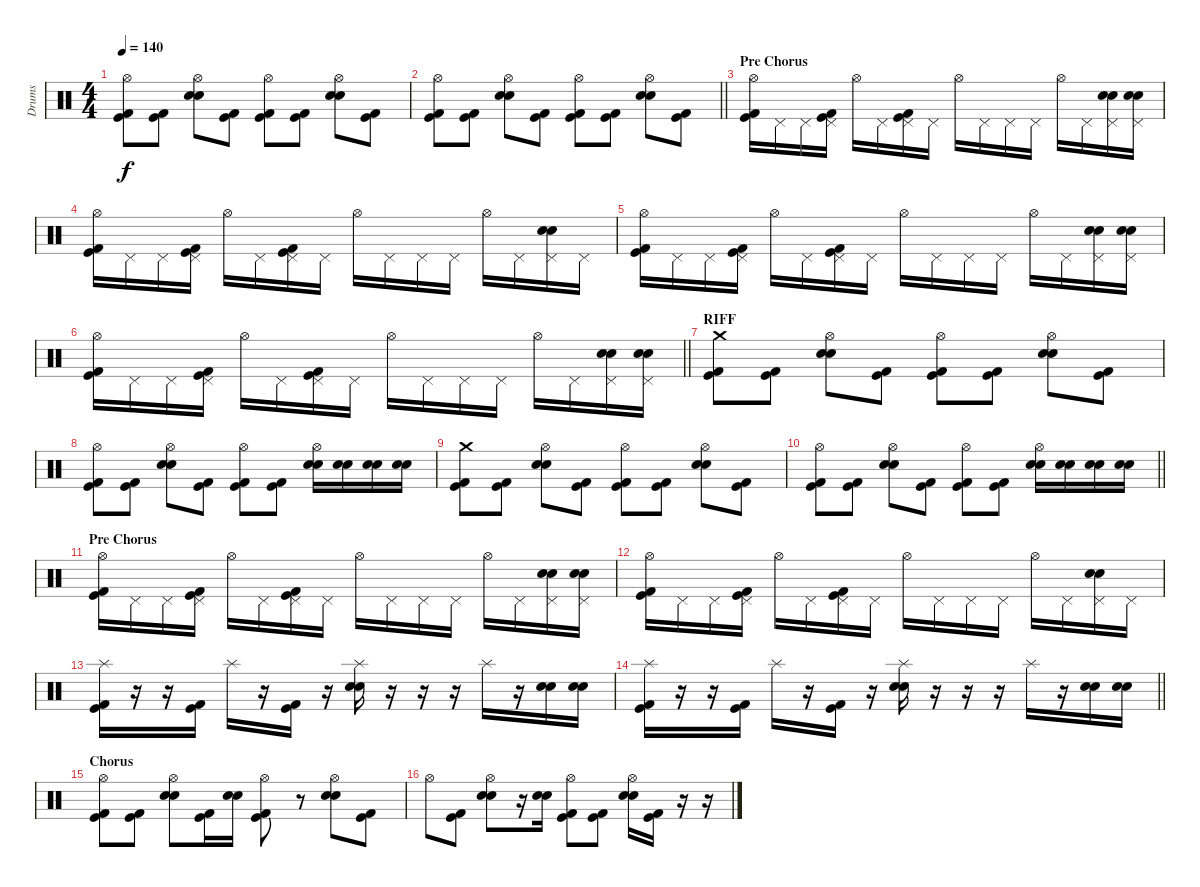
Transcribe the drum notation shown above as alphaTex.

\track ("Drums" "Drums") {instrument percussion}
\staff {score}
\articulation defaults
\ts (4 4)
\tempo 140
\clef neutral
\ks c
("Hi-Hat (open)" "Kick (hit) 2" "Kick (hit)").8{dy f} ("Kick (hit) 2" "Kick (hit)").8 ("Hi-Hat (open)" "Electric Snare (hit)" "Electric Snare (hit)").8 ("Kick (hit)" "Kick (hit) 2").8 ("Hi-Hat (open)" "Kick (hit) 2" "Kick (hit)").8 ("Kick (hit) 2" "Kick (hit)").8 ("Hi-Hat (open)" "Electric Snare (hit)" "Electric Snare (hit)").8 ("Kick (hit)" "Kick (hit) 2").8 |
\barLineRight lightlight
("Hi-Hat (open)" "Kick (hit) 2" "Kick (hit)").8 ("Kick (hit) 2" "Kick (hit)").8 ("Hi-Hat (open)" "Electric Snare (hit)" "Electric Snare (hit)").8 ("Kick (hit)" "Kick (hit) 2").8 ("Hi-Hat (open)" "Kick (hit) 2" "Kick (hit)").8 ("Kick (hit) 2" "Kick (hit)").8 ("Hi-Hat (open)" "Electric Snare (hit)" "Electric Snare (hit)").8 ("Kick (hit)" "Kick (hit) 2").8 |
\section ("" "Pre Chorus")
("Hi-Hat (open)" "Kick (hit) 2" "Kick (hit)").16 "Pedal Hi-Hat (hit)".16 "Pedal Hi-Hat (hit)".16 ("Pedal Hi-Hat (hit)" "Kick (hit) 2" "Kick (hit)").16 "Hi-Hat (open)".16 "Pedal Hi-Hat (hit)".16 ("Pedal Hi-Hat (hit)" "Kick (hit) 2" "Kick (hit)").16 "Pedal Hi-Hat (hit)".16 "Hi-Hat (open)".16 "Pedal Hi-Hat (hit)".16 "Pedal Hi-Hat (hit)".16 "Pedal Hi-Hat (hit)".16 "Hi-Hat (open)".16 "Pedal Hi-Hat (hit)".16 ("Pedal Hi-Hat (hit)" "Electric Snare (hit)" "Electric Snare (hit)").16 ("Pedal Hi-Hat (hit)" "Electric Snare (hit)" "Electric Snare (hit)").16 |
("Hi-Hat (open)" "Kick (hit) 2" "Kick (hit)").16 "Pedal Hi-Hat (hit)".16 "Pedal Hi-Hat (hit)".16 ("Pedal Hi-Hat (hit)" "Kick (hit) 2" "Kick (hit)").16 "Hi-Hat (open)".16 "Pedal Hi-Hat (hit)".16 ("Pedal Hi-Hat (hit)" "Kick (hit) 2" "Kick (hit)").16 "Pedal Hi-Hat (hit)".16 "Hi-Hat (open)".16 "Pedal Hi-Hat (hit)".16 "Pedal Hi-Hat (hit)".16 "Pedal Hi-Hat (hit)".16 "Hi-Hat (open)".16 "Pedal Hi-Hat (hit)".16 ("Pedal Hi-Hat (hit)" "Electric Snare (hit)" "Electric Snare (hit)").16 "Pedal Hi-Hat (hit)".16 |
("Hi-Hat (open)" "Kick (hit) 2" "Kick (hit)").16 "Pedal Hi-Hat (hit)".16 "Pedal Hi-Hat (hit)".16 ("Pedal Hi-Hat (hit)" "Kick (hit) 2" "Kick (hit)").16 "Hi-Hat (open)".16 "Pedal Hi-Hat (hit)".16 ("Pedal Hi-Hat (hit)" "Kick (hit) 2" "Kick (hit)").16 "Pedal Hi-Hat (hit)".16 "Hi-Hat (open)".16 "Pedal Hi-Hat (hit)".16 "Pedal Hi-Hat (hit)".16 "Pedal Hi-Hat (hit)".16 "Hi-Hat (open)".16 "Pedal Hi-Hat (hit)".16 ("Pedal Hi-Hat (hit)" "Electric Snare (hit)" "Electric Snare (hit)").16 ("Pedal Hi-Hat (hit)" "Electric Snare (hit)" "Electric Snare (hit)").16 |
\barLineRight lightlight
("Hi-Hat (open)" "Kick (hit) 2" "Kick (hit)").16 "Pedal Hi-Hat (hit)".16 "Pedal Hi-Hat (hit)".16 ("Pedal Hi-Hat (hit)" "Kick (hit) 2" "Kick (hit)").16 "Hi-Hat (open)".16 "Pedal Hi-Hat (hit)".16 ("Pedal Hi-Hat (hit)" "Kick (hit) 2" "Kick (hit)").16 "Pedal Hi-Hat (hit)".16 "Hi-Hat (open)".16 "Pedal Hi-Hat (hit)".16 "Pedal Hi-Hat (hit)".16 "Pedal Hi-Hat (hit)".16 "Hi-Hat (open)".16 "Pedal Hi-Hat (hit)".16 ("Pedal Hi-Hat (hit)" "Electric Snare (hit)" "Electric Snare (hit)").16 ("Pedal Hi-Hat (hit)" "Electric Snare (hit)" "Electric Snare (hit)").16 |
\section ("" "RIFF")
("Crash medium (hit)" "Kick (hit) 2" "Kick (hit)").8 ("Kick (hit) 2" "Kick (hit)").8 ("Hi-Hat (open)" "Electric Snare (hit)" "Electric Snare (hit)").8 ("Kick (hit)" "Kick (hit) 2").8 ("Hi-Hat (open)" "Kick (hit) 2" "Kick (hit)").8 ("Kick (hit) 2" "Kick (hit)").8 ("Hi-Hat (open)" "Electric Snare (hit)" "Electric Snare (hit)").8 ("Kick (hit)" "Kick (hit) 2").8 |
("Hi-Hat (open)" "Kick (hit) 2" "Kick (hit)").8 ("Kick (hit) 2" "Kick (hit)").8 ("Hi-Hat (open)" "Electric Snare (hit)" "Electric Snare (hit)").8 ("Kick (hit)" "Kick (hit) 2").8 ("Hi-Hat (open)" "Kick (hit) 2" "Kick (hit)").8 ("Kick (hit) 2" "Kick (hit)").8 ("Hi-Hat (open)" "Electric Snare (hit)" "Electric Snare (hit)").16 ("Electric Snare (hit)" "Electric Snare (hit)").16 ("Electric Snare (hit)" "Electric Snare (hit)").16 ("Electric Snare (hit)" "Electric Snare (hit)").16 |
("Crash medium (hit)" "Kick (hit) 2" "Kick (hit)").8 ("Kick (hit) 2" "Kick (hit)").8 ("Hi-Hat (open)" "Electric Snare (hit)" "Electric Snare (hit)").8 ("Kick (hit)" "Kick (hit) 2").8 ("Hi-Hat (open)" "Kick (hit) 2" "Kick (hit)").8 ("Kick (hit) 2" "Kick (hit)").8 ("Hi-Hat (open)" "Electric Snare (hit)" "Electric Snare (hit)").8 ("Kick (hit)" "Kick (hit) 2").8 |
\barLineRight lightlight
("Hi-Hat (open)" "Kick (hit) 2" "Kick (hit)").8 ("Kick (hit) 2" "Kick (hit)").8 ("Hi-Hat (open)" "Electric Snare (hit)" "Electric Snare (hit)").8 ("Kick (hit)" "Kick (hit) 2").8 ("Hi-Hat (open)" "Kick (hit) 2" "Kick (hit)").8 ("Kick (hit) 2" "Kick (hit)").8 ("Hi-Hat (open)" "Electric Snare (hit)" "Electric Snare (hit)").16 ("Electric Snare (hit)" "Electric Snare (hit)").16 ("Electric Snare (hit)" "Electric Snare (hit)").16 ("Electric Snare (hit)" "Electric Snare (hit)").16 |
\section ("" "Pre Chorus")
("Hi-Hat (open)" "Kick (hit) 2" "Kick (hit)").16 "Pedal Hi-Hat (hit)".16 "Pedal Hi-Hat (hit)".16 ("Pedal Hi-Hat (hit)" "Kick (hit) 2" "Kick (hit)").16 "Hi-Hat (open)".16 "Pedal Hi-Hat (hit)".16 ("Pedal Hi-Hat (hit)" "Kick (hit) 2" "Kick (hit)").16 "Pedal Hi-Hat (hit)".16 "Hi-Hat (open)".16 "Pedal Hi-Hat (hit)".16 "Pedal Hi-Hat (hit)".16 "Pedal Hi-Hat (hit)".16 "Hi-Hat (open)".16 "Pedal Hi-Hat (hit)".16 ("Pedal Hi-Hat (hit)" "Electric Snare (hit)" "Electric Snare (hit)").16 ("Pedal Hi-Hat (hit)" "Electric Snare (hit)" "Electric Snare (hit)").16 |
("Hi-Hat (open)" "Kick (hit) 2" "Kick (hit)").16 "Pedal Hi-Hat (hit)".16 "Pedal Hi-Hat (hit)".16 ("Pedal Hi-Hat (hit)" "Kick (hit) 2" "Kick (hit)").16 "Hi-Hat (open)".16 "Pedal Hi-Hat (hit)".16 ("Pedal Hi-Hat (hit)" "Kick (hit) 2" "Kick (hit)").16 "Pedal Hi-Hat (hit)".16 "Hi-Hat (open)".16 "Pedal Hi-Hat (hit)".16 "Pedal Hi-Hat (hit)".16 "Pedal Hi-Hat (hit)".16 "Hi-Hat (open)".16 "Pedal Hi-Hat (hit)".16 ("Pedal Hi-Hat (hit)" "Electric Snare (hit)" "Electric Snare (hit)").16 "Pedal Hi-Hat (hit)".16 |
("Splash (hit)" "Kick (hit) 2" "Kick (hit)").16 r.16 r.16 ("Kick (hit) 2" "Kick (hit)").16 "Splash (hit)".16 r.16 ("Kick (hit) 2" "Kick (hit)").16 r.16 ("Splash (hit)" "Electric Snare (hit)" "Electric Snare (hit)").16 r.16 r.16 r.16 "Splash (hit)".16 r.16 ("Electric Snare (hit)" "Electric Snare (hit)").16 ("Electric Snare (hit)" "Electric Snare (hit)").16 |
\barLineRight lightlight
("Splash (hit)" "Kick (hit) 2" "Kick (hit)").16 r.16 r.16 ("Kick (hit) 2" "Kick (hit)").16 "Splash (hit)".16 r.16 ("Kick (hit) 2" "Kick (hit)").16 r.16 ("Splash (hit)" "Electric Snare (hit)" "Electric Snare (hit)").16 r.16 r.16 r.16 "Splash (hit)".16 r.16 ("Electric Snare (hit)" "Electric Snare (hit)").16 ("Electric Snare (hit)" "Electric Snare (hit)").16 |
\section ("" "Chorus")
("Hi-Hat (open)" "Kick (hit) 2" "Kick (hit)").8 ("Kick (hit) 2" "Kick (hit)").8 ("Hi-Hat (open)" "Electric Snare (hit)" "Electric Snare (hit)").8 ("Kick (hit) 2" "Kick (hit)").16 ("Electric Snare (hit)" "Electric Snare (hit)").16 ("Hi-Hat (open)" "Kick (hit) 2" "Kick (hit)").8 r.8 ("Hi-Hat (open)" "Electric Snare (hit)" "Electric Snare (hit)").8 ("Kick (hit)" "Kick (hit) 2").8 |
"Hi-Hat (open)".8 ("Kick (hit) 2" "Kick (hit)").8 ("Hi-Hat (open)" "Electric Snare (hit)" "Electric Snare (hit)").8 r.16 ("Electric Snare (hit)" "Electric Snare (hit)").16 ("Hi-Hat (open)" "Kick (hit) 2" "Kick (hit)").8 ("Kick (hit) 2" "Kick (hit)").8 ("Hi-Hat (open)" "Electric Snare (hit)" "Electric Snare (hit)").16 ("Kick (hit) 2" "Kick (hit)").16 r.16 r.16
